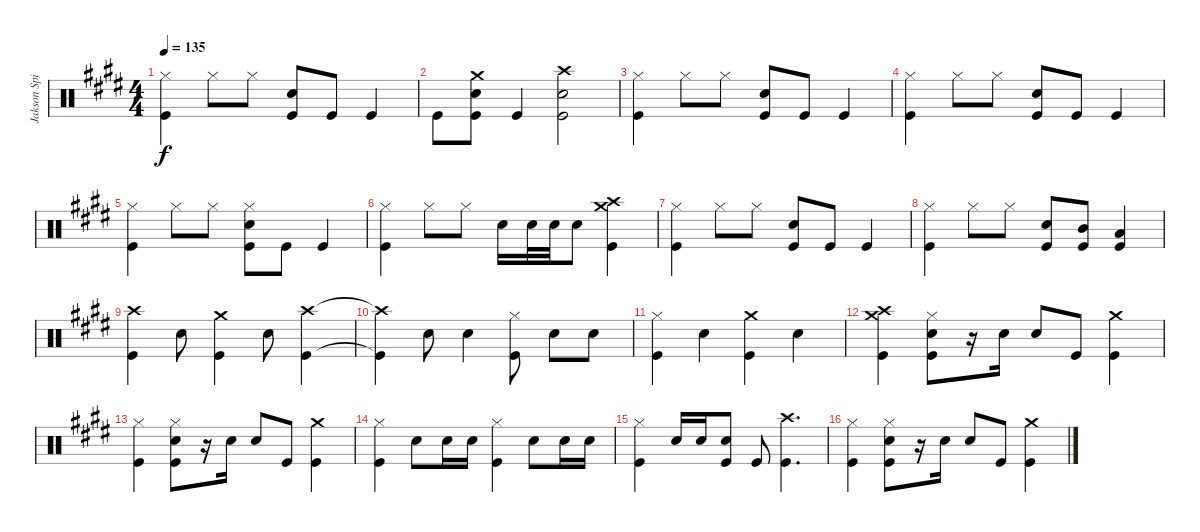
\track ("Jakson Spires Drums" "Jakson Spi") {instrument percussion}
\staff {score}
\articulation defaults
\ts (4 4)
\tempo 135
\clef neutral
\ks e
("Hi-Hat (closed)" "Kick (hit)").4{dy f} "Hi-Hat (closed)".8 "Hi-Hat (closed)".8 ("Snare (hit) 2" "Kick (hit)").8 "Kick (hit)".8 "Kick (hit)".4 |
"Kick (hit)".8 ("Crash medium (hit)" "Snare (hit) 2" "Kick (hit)").8 "Kick (hit)".4 ("Crash high (hit)" "Snare (hit) 2" "Kick (hit)").2 |
("Hi-Hat (closed)" "Kick (hit)").4 "Hi-Hat (closed)".8 "Hi-Hat (closed)".8 ("Snare (hit) 2" "Kick (hit)").8 "Kick (hit)".8 "Kick (hit)".4 |
("Hi-Hat (closed)" "Kick (hit)").4 "Hi-Hat (closed)".8 "Hi-Hat (closed)".8 ("Snare (hit) 2" "Kick (hit)").8 "Kick (hit)".8 "Kick (hit)".4 |
("Hi-Hat (closed)" "Kick (hit)").4 "Hi-Hat (closed)".8 "Hi-Hat (closed)".8 ("Hi-Hat (closed)" "Snare (hit) 2" "Kick (hit)").8 "Kick (hit)".8 "Kick (hit)".4 |
("Hi-Hat (closed)" "Kick (hit)").4 "Hi-Hat (closed)".8 "Hi-Hat (closed)".8 "Snare (hit) 2".16 "Snare (hit) 2".32 "Snare (hit) 2".32 "Snare (hit) 2".8 ("Crash high (hit)" "Crash medium (hit)" "Kick (hit)").4 |
("Hi-Hat (closed)" "Kick (hit)").4 "Hi-Hat (closed)".8 "Hi-Hat (closed)".8 ("Snare (hit) 2" "Kick (hit)").8 "Kick (hit)".8 "Kick (hit)".4 |
("Hi-Hat (closed)" "Kick (hit)").4 "Hi-Hat (closed)".8 "Hi-Hat (closed)".8 ("Snare (hit) 2" "Kick (hit)").8 ("Mid Tom (hit)" "Kick (hit)").8 ("Low Tom (hit)" "Kick (hit)").4 |
("Crash high (hit)" "Kick (hit)").4 "Snare (hit) 2".8 ("Crash medium (hit)" "Kick (hit)").4 "Snare (hit) 2".8 ("Crash high (hit)" "Kick (hit)").4 |
("Crash high (hit)"{t} "Kick (hit)"{t}).4 "Snare (hit) 2".8 "Snare (hit) 2".4 ("Hi-Hat (closed)" "Kick (hit)").8 "Snare (hit) 2".8 "Snare (hit) 2".8 |
("Hi-Hat (closed)" "Kick (hit)").4 "Snare (hit) 2".4 ("Crash medium (hit)" "Kick (hit)").4 "Snare (hit) 2".4 |
("Crash high (hit)" "Crash medium (hit)" "Kick (hit)").4 ("Hi-Hat (closed)" "Snare (hit) 2" "Kick (hit)").8 r.16 "Snare (hit) 2".16 "Snare (hit) 2".8 "Kick (hit)".8 ("Crash medium (hit)" "Kick (hit)").4 |
("Hi-Hat (closed)" "Kick (hit)").4 ("Hi-Hat (closed)" "Snare (hit) 2" "Kick (hit)").8 r.16 "Snare (hit) 2".16 "Snare (hit) 2".8 "Kick (hit)".8 ("Crash medium (hit)" "Kick (hit)").4 |
("Hi-Hat (closed)" "Kick (hit)").4 "Snare (hit) 2".8 "Snare (hit) 2".16 "Snare (hit) 2".16 ("Hi-Hat (closed)" "Kick (hit)").4 "Snare (hit) 2".8 "Snare (hit) 2".16 "Snare (hit) 2".16 |
("Hi-Hat (closed)" "Kick (hit)").4 "Snare (hit) 2".16 "Snare (hit) 2".16 ("Snare (hit) 2" "Kick (hit)").8 "Kick (hit)".8 ("Crash high (hit)" "Kick (hit)").4{d} |
("Hi-Hat (closed)" "Kick (hit)").4 ("Hi-Hat (closed)" "Snare (hit) 2" "Kick (hit)").8 r.16 "Snare (hit) 2".16 "Snare (hit) 2".8 "Kick (hit)".8 ("Crash medium (hit)" "Kick (hit)").4
